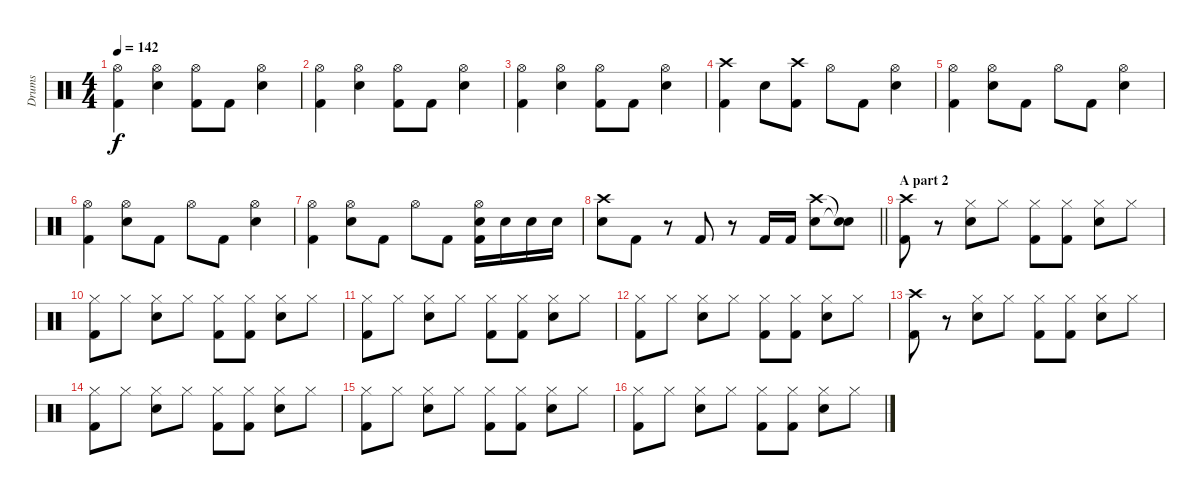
\track ("Drums" "Drums") {instrument percussion}
\staff {score}
\articulation defaults
\ts (4 4)
\tempo 142
\clef neutral
\ks c
("Hi-Hat (open)" "Kick (hit) 2").4{dy f} ("Hi-Hat (open)" "Snare (hit) 2").4 ("Hi-Hat (open)" "Kick (hit) 2").8 "Kick (hit) 2".8 ("Hi-Hat (open)" "Snare (hit) 2").4 |
("Hi-Hat (open)" "Kick (hit) 2").4 ("Hi-Hat (open)" "Snare (hit) 2").4 ("Hi-Hat (open)" "Kick (hit) 2").8 "Kick (hit) 2".8 ("Hi-Hat (open)" "Snare (hit) 2").4 |
("Hi-Hat (open)" "Kick (hit) 2").4 ("Hi-Hat (open)" "Snare (hit) 2").4 ("Hi-Hat (open)" "Kick (hit) 2").8 "Kick (hit) 2".8{txt ""} ("Hi-Hat (open)" "Snare (hit) 2").4 |
("Crash high (hit)" "Kick (hit) 2").4 "Snare (hit) 2".8 ("Crash high (hit)" "Kick (hit) 2").8 "Hi-Hat (open)".8 "Kick (hit) 2".8 ("Hi-Hat (open)" "Snare (hit) 2").4 |
("Hi-Hat (open)" "Kick (hit) 2").4 ("Hi-Hat (open)" "Snare (hit) 2").8 "Kick (hit) 2".8 "Hi-Hat (open)".8 "Kick (hit) 2".8 ("Hi-Hat (open)" "Snare (hit) 2").4 |
("Hi-Hat (open)" "Kick (hit) 2").4 ("Hi-Hat (open)" "Snare (hit) 2").8 "Kick (hit) 2".8 "Hi-Hat (open)".8 "Kick (hit) 2".8 ("Hi-Hat (open)" "Snare (hit) 2").4 |
("Hi-Hat (open)" "Kick (hit) 2").4 ("Hi-Hat (open)" "Snare (hit) 2").8 "Kick (hit) 2".8 "Hi-Hat (open)".8 "Kick (hit) 2".8 ("Hi-Hat (open)" "Snare (hit) 2" "Kick (hit) 2").16 "Snare (hit) 2".16 "Snare (hit) 2".16 "Snare (hit) 2".16 |
\barLineRight lightlight
("Crash high (hit)" "Snare (hit) 2").8 "Kick (hit) 2".8 r.8 "Kick (hit) 2".8 r.8 "Kick (hit) 2".16 "Kick (hit) 2".16 ("Crash high (hit)" "Snare (hit) 2").8 ("Snare (hit)"{t} "Snare (hit)"{t}).8 |
\section ("" "A part 2")
("Crash high (hit)" "Kick (hit) 2").8 r.8 ("Hi-Hat (closed)" "Snare (hit) 2").8 "Hi-Hat (closed)".8 ("Hi-Hat (closed)" "Kick (hit) 2").8 ("Hi-Hat (closed)" "Kick (hit) 2").8 ("Hi-Hat (closed)" "Snare (hit) 2").8 "Hi-Hat (closed)".8 |
("Hi-Hat (closed)" "Kick (hit) 2").8 "Hi-Hat (closed)".8 ("Hi-Hat (closed)" "Snare (hit) 2").8 "Hi-Hat (closed)".8 ("Hi-Hat (closed)" "Kick (hit) 2").8 ("Hi-Hat (closed)" "Kick (hit) 2").8 ("Hi-Hat (closed)" "Snare (hit) 2").8 "Hi-Hat (closed)".8 |
("Hi-Hat (closed)" "Kick (hit) 2").8 "Hi-Hat (closed)".8 ("Hi-Hat (closed)" "Snare (hit) 2").8 "Hi-Hat (closed)".8 ("Hi-Hat (closed)" "Kick (hit) 2").8 ("Hi-Hat (closed)" "Kick (hit) 2").8 ("Hi-Hat (closed)" "Snare (hit) 2").8 "Hi-Hat (closed)".8 |
("Hi-Hat (closed)" "Kick (hit) 2").8 "Hi-Hat (closed)".8 ("Hi-Hat (closed)" "Snare (hit) 2").8 "Hi-Hat (closed)".8 ("Hi-Hat (closed)" "Kick (hit) 2").8 ("Hi-Hat (closed)" "Kick (hit) 2").8 ("Hi-Hat (closed)" "Snare (hit) 2").8 "Hi-Hat (closed)".8 |
("Crash high (hit)" "Kick (hit) 2").8 r.8 ("Hi-Hat (closed)" "Snare (hit) 2").8 "Hi-Hat (closed)".8 ("Hi-Hat (closed)" "Kick (hit) 2").8 ("Hi-Hat (closed)" "Kick (hit) 2").8 ("Hi-Hat (closed)" "Snare (hit) 2").8 "Hi-Hat (closed)".8 |
("Hi-Hat (closed)" "Kick (hit) 2").8 "Hi-Hat (closed)".8 ("Hi-Hat (closed)" "Snare (hit) 2").8 "Hi-Hat (closed)".8 ("Hi-Hat (closed)" "Kick (hit) 2").8 ("Hi-Hat (closed)" "Kick (hit) 2").8 ("Hi-Hat (closed)" "Snare (hit) 2").8 "Hi-Hat (closed)".8 |
("Hi-Hat (closed)" "Kick (hit) 2").8 "Hi-Hat (closed)".8 ("Hi-Hat (closed)" "Snare (hit) 2").8 "Hi-Hat (closed)".8 ("Hi-Hat (closed)" "Kick (hit) 2").8 ("Hi-Hat (closed)" "Kick (hit) 2").8 ("Hi-Hat (closed)" "Snare (hit) 2").8 "Hi-Hat (closed)".8 |
("Hi-Hat (closed)" "Kick (hit) 2").8 "Hi-Hat (closed)".8 ("Hi-Hat (closed)" "Snare (hit) 2").8 "Hi-Hat (closed)".8 ("Hi-Hat (closed)" "Kick (hit) 2").8 ("Hi-Hat (closed)" "Kick (hit) 2").8 ("Hi-Hat (closed)" "Snare (hit) 2").8 "Hi-Hat (closed)".8
